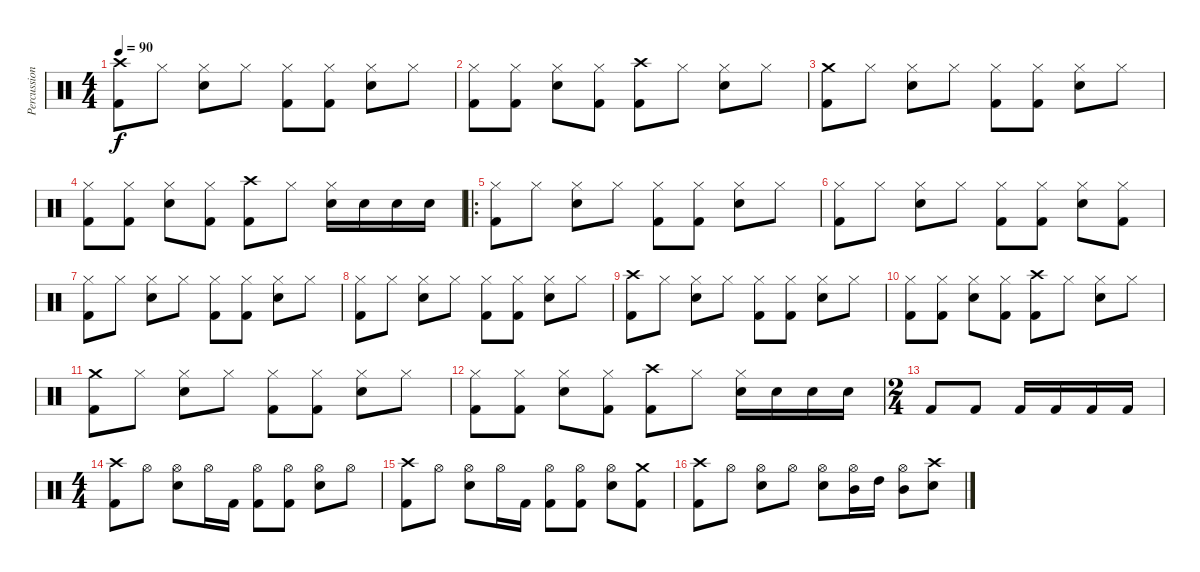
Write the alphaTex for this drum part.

\track ("Percussion" "Percussion") {instrument percussion}
\staff {score}
\articulation defaults
\ts (4 4)
\tempo 90
\clef neutral
\ks c
("Crash high (hit)" "Kick (hit) 2").8{dy f} "Hi-Hat (closed)".8 ("Hi-Hat (closed)" "Snare (hit) 2").8 "Hi-Hat (closed)".8 ("Hi-Hat (closed)" "Kick (hit) 2").8 ("Hi-Hat (closed)" "Kick (hit) 2").8 ("Hi-Hat (closed)" "Snare (hit) 2").8 "Hi-Hat (closed)".8 |
("Hi-Hat (closed)" "Kick (hit) 2").8 ("Hi-Hat (closed)" "Kick (hit) 2").8 ("Hi-Hat (closed)" "Snare (hit) 2").8 ("Hi-Hat (closed)" "Kick (hit) 2").8 ("Crash high (hit)" "Kick (hit) 2").8 "Hi-Hat (closed)".8 ("Hi-Hat (closed)" "Snare (hit) 2").8 "Hi-Hat (closed)".8 |
("Crash medium (hit)" "Kick (hit) 2").8 "Hi-Hat (closed)".8 ("Hi-Hat (closed)" "Snare (hit) 2").8 "Hi-Hat (closed)".8 ("Hi-Hat (closed)" "Kick (hit) 2").8 ("Hi-Hat (closed)" "Kick (hit) 2").8 ("Hi-Hat (closed)" "Snare (hit) 2").8 "Hi-Hat (closed)".8 |
("Hi-Hat (closed)" "Kick (hit) 2").8 ("Hi-Hat (closed)" "Kick (hit) 2").8 ("Hi-Hat (closed)" "Snare (hit) 2").8 ("Hi-Hat (closed)" "Kick (hit) 2").8 ("Crash high (hit)" "Kick (hit) 2").8 "Hi-Hat (closed)".8 ("Hi-Hat (closed)" "Snare (hit) 2").16 "Snare (hit) 2".16 "Snare (hit) 2".16 "Snare (hit) 2".16 |
\ro
("Hi-Hat (closed)" "Kick (hit) 2").8 "Hi-Hat (closed)".8 ("Hi-Hat (closed)" "Snare (hit) 2").8 "Hi-Hat (closed)".8 ("Hi-Hat (closed)" "Kick (hit) 2").8 ("Hi-Hat (closed)" "Kick (hit) 2").8 ("Hi-Hat (closed)" "Snare (hit) 2").8 "Hi-Hat (closed)".8 |
("Hi-Hat (closed)" "Kick (hit) 2").8 "Hi-Hat (closed)".8 ("Hi-Hat (closed)" "Snare (hit) 2").8 "Hi-Hat (closed)".8 ("Hi-Hat (closed)" "Kick (hit) 2").8 ("Hi-Hat (closed)" "Kick (hit) 2").8 ("Hi-Hat (closed)" "Snare (hit) 2").8 ("Hi-Hat (closed)" "Kick (hit) 2").8 |
("Hi-Hat (closed)" "Kick (hit) 2").8 "Hi-Hat (closed)".8 ("Hi-Hat (closed)" "Snare (hit) 2").8 "Hi-Hat (closed)".8 ("Hi-Hat (closed)" "Kick (hit) 2").8 ("Hi-Hat (closed)" "Kick (hit) 2").8 ("Hi-Hat (closed)" "Snare (hit) 2").8 "Hi-Hat (closed)".8 |
("Hi-Hat (closed)" "Kick (hit) 2").8 "Hi-Hat (closed)".8 ("Hi-Hat (closed)" "Snare (hit) 2").8 "Hi-Hat (closed)".8 ("Hi-Hat (closed)" "Kick (hit) 2").8 ("Hi-Hat (closed)" "Kick (hit) 2").8 ("Hi-Hat (closed)" "Snare (hit) 2").8 "Hi-Hat (closed)".8 |
("Crash high (hit)" "Kick (hit) 2").8 "Hi-Hat (closed)".8 ("Hi-Hat (closed)" "Snare (hit) 2").8 "Hi-Hat (closed)".8 ("Hi-Hat (closed)" "Kick (hit) 2").8 ("Hi-Hat (closed)" "Kick (hit) 2").8 ("Hi-Hat (closed)" "Snare (hit) 2").8 "Hi-Hat (closed)".8 |
("Hi-Hat (closed)" "Kick (hit) 2").8 ("Hi-Hat (closed)" "Kick (hit) 2").8 ("Hi-Hat (closed)" "Snare (hit) 2").8 ("Hi-Hat (closed)" "Kick (hit) 2").8 ("Crash high (hit)" "Kick (hit) 2").8 "Hi-Hat (closed)".8 ("Hi-Hat (closed)" "Snare (hit) 2").8 "Hi-Hat (closed)".8 |
("Crash medium (hit)" "Kick (hit) 2").8 "Hi-Hat (closed)".8 ("Hi-Hat (closed)" "Snare (hit) 2").8 "Hi-Hat (closed)".8 ("Hi-Hat (closed)" "Kick (hit) 2").8 ("Hi-Hat (closed)" "Kick (hit) 2").8 ("Hi-Hat (closed)" "Snare (hit) 2").8 "Hi-Hat (closed)".8 |
("Hi-Hat (closed)" "Kick (hit) 2").8 ("Hi-Hat (closed)" "Kick (hit) 2").8 ("Hi-Hat (closed)" "Snare (hit) 2").8 ("Hi-Hat (closed)" "Kick (hit) 2").8 ("Crash high (hit)" "Kick (hit) 2").8 "Hi-Hat (closed)".8 ("Hi-Hat (closed)" "Snare (hit) 2").16 "Snare (hit) 2".16 "Snare (hit) 2".16 "Snare (hit) 2".16 |
\ts (2 4)
"Kick (hit) 2".8 "Kick (hit) 2".8 "Kick (hit) 2".16 "Kick (hit) 2".16 "Kick (hit) 2".16 "Kick (hit) 2".16 |
\ts (4 4)
("Crash high (hit)" "Kick (hit) 2").8 "Hi-Hat (open)".8 ("Hi-Hat (open)" "Snare (hit) 2").8 "Hi-Hat (open)".16 "Kick (hit) 2".16 ("Hi-Hat (open)" "Kick (hit) 2").8 ("Hi-Hat (open)" "Kick (hit) 2").8 ("Hi-Hat (open)" "Snare (hit) 2").8 "Hi-Hat (open)".8 |
("Crash high (hit)" "Kick (hit) 2").8 "Hi-Hat (open)".8 ("Hi-Hat (open)" "Snare (hit) 2").8 "Hi-Hat (open)".16 "Kick (hit) 2".16 ("Hi-Hat (open)" "Kick (hit) 2").8 ("Hi-Hat (open)" "Kick (hit) 2").8 ("Hi-Hat (open)" "Snare (hit) 2").8 ("Crash medium (hit)" "Kick (hit) 2").8 |
("Crash high (hit)" "Kick (hit) 2").8 "Hi-Hat (open)".8 ("Hi-Hat (open)" "Snare (hit) 2").8 "Hi-Hat (open)".8 ("Hi-Hat (open)" "Snare (hit) 2").8 ("Hi-Hat (open)" "Mid Tom (hit)").16 "High Tom (hit)".16 ("Hi-Hat (open)" "Mid Tom (hit)").8 ("Crash high (hit)" "Snare (hit) 2").8
